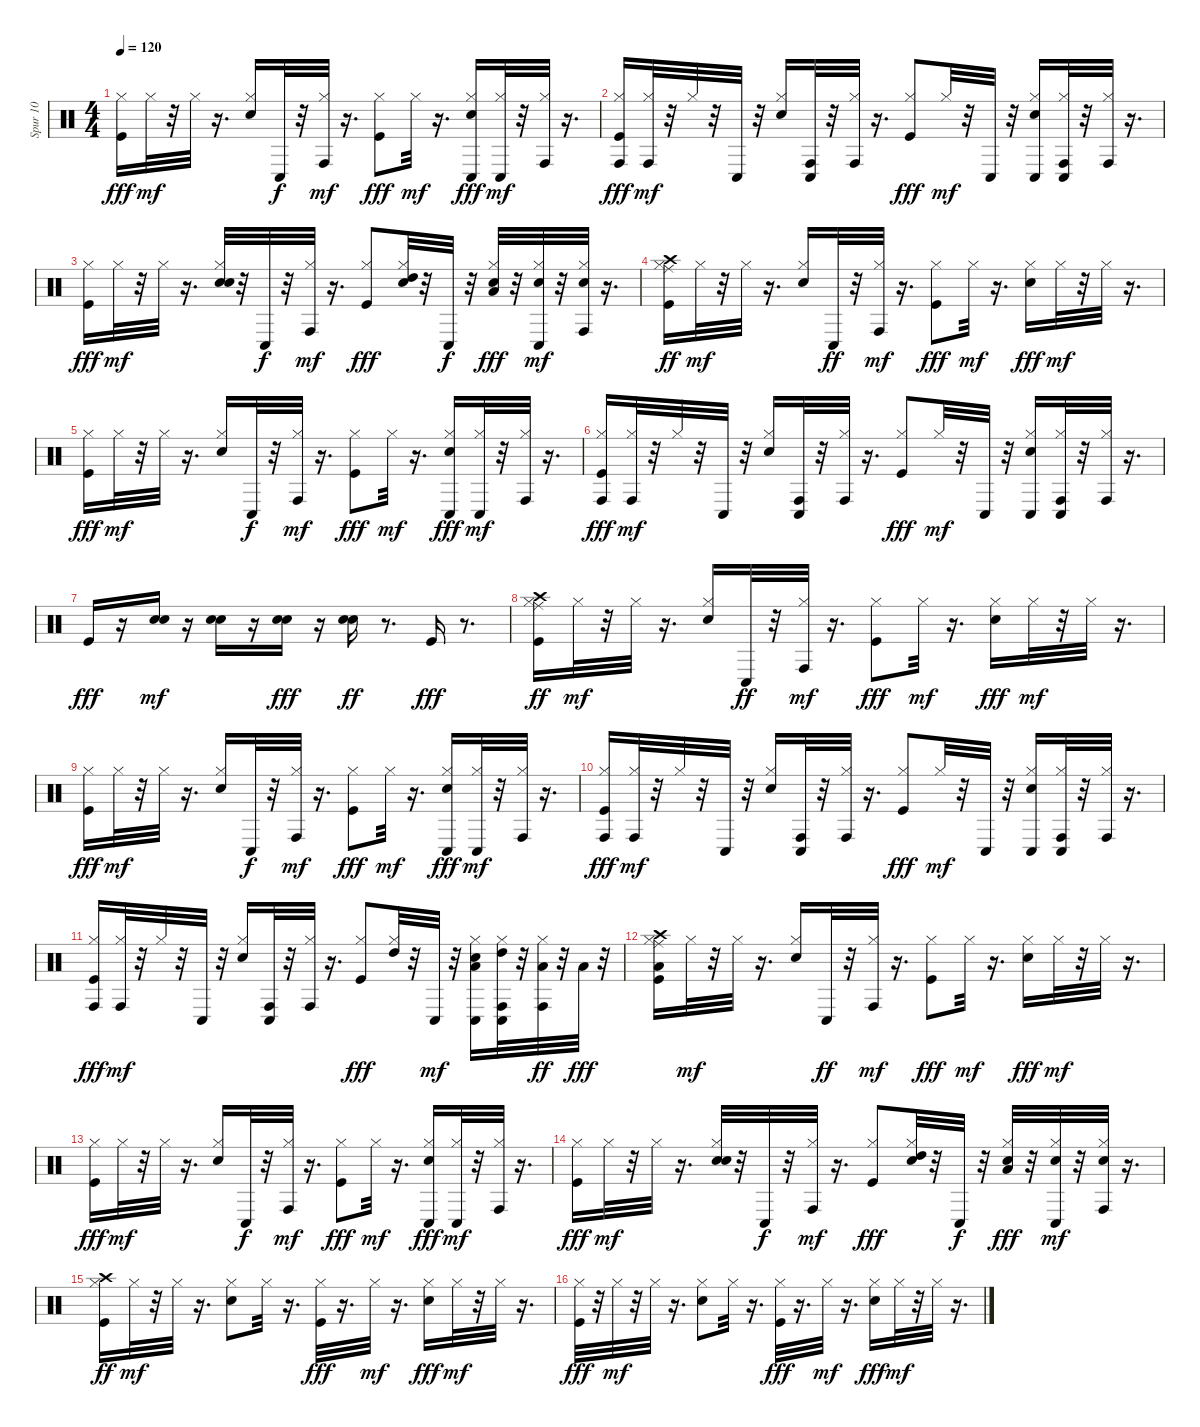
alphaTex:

\track ("Spur 10" "Spur 10") {instrument percussion}
\staff {score}
\articulation defaults
\ts (4 4)
\tempo 120
\clef neutral
\ks c
("Kick (hit)" "Hi-Hat (closed)").16{dy fff} "Hi-Hat (closed)".32{dy mf} r.32 "Hi-Hat (closed)".32 r.16{d} ("Snare (hit) 2" "Hi-Hat (closed)").16 "Conga low (hit)".32{dy f} r.32 ("Hi-Hat (closed)" "Conga high (hit)").32{dy mf} r.16{d} ("Kick (hit)" "Hi-Hat (closed)").8{dy fff} "Hi-Hat (closed)".32{dy mf} r.16{d} ("Snare (hit) 2" "Hi-Hat (closed)" "Conga low (hit)").16{dy fff} ("Hi-Hat (closed)" "Conga low (hit)").32{dy mf} r.32 ("Hi-Hat (closed)" "Conga high (hit)").32 r.16{d} |
("Kick (hit)" "Hi-Hat (closed)" "Conga high (hit)").16{dy fff} ("Hi-Hat (closed)" "Conga high (hit)").32{dy mf} r.32 "Hi-Hat (closed)".32 r.32 "Conga low (hit)".32 r.32 ("Snare (hit) 2" "Hi-Hat (closed)").16 ("Conga high (hit)" "Conga low (hit)").32 r.32 ("Hi-Hat (closed)" "Conga high (hit)").32 r.16{d} ("Kick (hit)" "Hi-Hat (closed)").8{dy fff} "Hi-Hat (closed)".32{dy mf} r.32 "Conga low (hit)".32 r.32 ("Snare (hit) 2" "Hi-Hat (closed)" "Conga low (hit)").16 ("Hi-Hat (closed)" "Conga high (hit)" "Conga low (hit)").32 r.32 ("Hi-Hat (closed)" "Conga high (hit)").32 r.16{d} |
("Kick (hit)" "Hi-Hat (closed)").16{dy fff} "Hi-Hat (closed)".32{dy mf} r.32 "Hi-Hat (closed)".32 r.16{d} ("Snare (hit) 2" "Electric Snare (hit)" "Hi-Hat (closed)").32 r.32 "Conga low (hit)".32{dy f} r.32 ("Hi-Hat (closed)" "Conga high (hit)").32{dy mf} r.16{d} ("Kick (hit)" "Hi-Hat (closed)").8{dy fff} ("Electric Snare (hit)" "Hi-Hat (closed)" "High Tom (hit)").32 r.32 "Conga low (hit)".32{dy f} r.32 ("Snare (hit) 2" "Hi-Hat (closed)" "Low Floor Tom (hit)").32{dy fff} r.32 ("Snare (hit) 2" "Hi-Hat (closed)" "Conga low (hit)").32{dy mf} r.32 ("Snare (hit) 2" "Hi-Hat (closed)" "Conga high (hit)").32 r.16{d} |
("Kick (hit)" "Hi-Hat (closed)" "Ride (middle)" "Crash high (hit)").16{dy ff} "Hi-Hat (closed)".32{dy mf} r.32 "Hi-Hat (closed)".32 r.16{d} ("Snare (hit) 2" "Hi-Hat (closed)").16 "Conga low (hit)".32{dy ff} r.32 ("Hi-Hat (closed)" "Conga high (hit)").32{dy mf} r.16{d} ("Kick (hit)" "Hi-Hat (closed)").8{dy fff} "Hi-Hat (closed)".32{dy mf} r.16{d} ("Snare (hit) 2" "Hi-Hat (closed)").16{dy fff} "Hi-Hat (closed)".32{dy mf} r.32 "Hi-Hat (closed)".32 r.16{d} |
("Kick (hit)" "Hi-Hat (closed)").16{dy fff} "Hi-Hat (closed)".32{dy mf} r.32 "Hi-Hat (closed)".32 r.16{d} ("Snare (hit) 2" "Hi-Hat (closed)").16 "Conga low (hit)".32{dy f} r.32 ("Hi-Hat (closed)" "Conga high (hit)").32{dy mf} r.16{d} ("Kick (hit)" "Hi-Hat (closed)").8{dy fff} "Hi-Hat (closed)".32{dy mf} r.16{d} ("Snare (hit) 2" "Hi-Hat (closed)" "Conga low (hit)").16{dy fff} ("Hi-Hat (closed)" "Conga low (hit)").32{dy mf} r.32 ("Hi-Hat (closed)" "Conga high (hit)").32 r.16{d} |
("Kick (hit)" "Hi-Hat (closed)" "Conga high (hit)").16{dy fff} ("Hi-Hat (closed)" "Conga high (hit)").32{dy mf} r.32 "Hi-Hat (closed)".32 r.32 "Conga low (hit)".32 r.32 ("Snare (hit) 2" "Hi-Hat (closed)").16 ("Conga high (hit)" "Conga low (hit)").32 r.32 ("Hi-Hat (closed)" "Conga high (hit)").32 r.16{d} ("Kick (hit)" "Hi-Hat (closed)").8{dy fff} "Hi-Hat (closed)".32{dy mf} r.32 "Conga low (hit)".32 r.32 ("Snare (hit) 2" "Hi-Hat (closed)" "Conga low (hit)").16 ("Hi-Hat (closed)" "Conga high (hit)" "Conga low (hit)").32 r.32 ("Hi-Hat (closed)" "Conga high (hit)").32 r.16{d} |
"Kick (hit)".16{dy fff} r.16 ("Snare (hit) 2" "Electric Snare (hit)").16{dy mf} r.16 ("Snare (hit) 2" "Electric Snare (hit)").16 r.16 ("Snare (hit) 2" "Electric Snare (hit)").16{dy fff} r.16 ("Snare (hit) 2" "Electric Snare (hit)").16{dy ff} r.8{d} "Kick (hit)".16{dy fff} r.8{d} |
("Kick (hit)" "Hi-Hat (closed)" "Ride (middle)" "Crash high (hit)").16{dy ff} "Hi-Hat (closed)".32{dy mf} r.32 "Hi-Hat (closed)".32 r.16{d} ("Snare (hit) 2" "Hi-Hat (closed)").16 "Conga low (hit)".32{dy ff} r.32 ("Hi-Hat (closed)" "Conga high (hit)").32{dy mf} r.16{d} ("Kick (hit)" "Hi-Hat (closed)").8{dy fff} "Hi-Hat (closed)".32{dy mf} r.16{d} ("Snare (hit) 2" "Hi-Hat (closed)").16{dy fff} "Hi-Hat (closed)".32{dy mf} r.32 "Hi-Hat (closed)".32 r.16{d} |
("Kick (hit)" "Hi-Hat (closed)").16{dy fff} "Hi-Hat (closed)".32{dy mf} r.32 "Hi-Hat (closed)".32 r.16{d} ("Snare (hit) 2" "Hi-Hat (closed)").16 "Conga low (hit)".32{dy f} r.32 ("Hi-Hat (closed)" "Conga high (hit)").32{dy mf} r.16{d} ("Kick (hit)" "Hi-Hat (closed)").8{dy fff} "Hi-Hat (closed)".32{dy mf} r.16{d} ("Snare (hit) 2" "Hi-Hat (closed)" "Conga low (hit)").16{dy fff} ("Hi-Hat (closed)" "Conga low (hit)").32{dy mf} r.32 ("Hi-Hat (closed)" "Conga high (hit)").32 r.16{d} |
("Kick (hit)" "Hi-Hat (closed)" "Conga high (hit)").16{dy fff} ("Hi-Hat (closed)" "Conga high (hit)").32{dy mf} r.32 "Hi-Hat (closed)".32 r.32 "Conga low (hit)".32 r.32 ("Snare (hit) 2" "Hi-Hat (closed)").16 ("Conga high (hit)" "Conga low (hit)").32 r.32 ("Hi-Hat (closed)" "Conga high (hit)").32 r.16{d} ("Kick (hit)" "Hi-Hat (closed)").8{dy fff} "Hi-Hat (closed)".32{dy mf} r.32 "Conga low (hit)".32 r.32 ("Snare (hit) 2" "Hi-Hat (closed)" "Conga low (hit)").16 ("Hi-Hat (closed)" "Conga high (hit)" "Conga low (hit)").32 r.32 ("Hi-Hat (closed)" "Conga high (hit)").32 r.16{d} |
("Kick (hit)" "Hi-Hat (closed)" "Conga high (hit)").16{dy fff} ("Hi-Hat (closed)" "Conga high (hit)").32{dy mf} r.32 "Hi-Hat (closed)".32 r.32 "Conga low (hit)".32 r.32 ("Snare (hit) 2" "Hi-Hat (closed)").16 ("Conga high (hit)" "Conga low (hit)").32 r.32 ("Hi-Hat (closed)" "Conga high (hit)").32 r.16{d} ("Kick (hit)" "Hi-Hat (closed)").8{dy fff} ("Hi-Hat (closed)" "High Tom (hit)").32 r.32 "Conga low (hit)".32{dy mf} r.32 ("Snare (hit) 2" "Hi-Hat (closed)" "Low Tom (hit)" "Conga low (hit)").16 ("Hi-Hat (closed)" "High Tom (hit)" "Conga high (hit)" "Conga low (hit)").32 r.32 ("Hi-Hat (closed)" "Low Tom (hit)" "Conga high (hit)").32{dy ff} r.32 "Low Tom (hit)".32{dy fff} r.32 |
("Kick (hit)" "Hi-Hat (closed)" "Ride (middle)" "Crash high (hit)" "Low Floor Tom (hit)").16 "Hi-Hat (closed)".32{dy mf} r.32 "Hi-Hat (closed)".32 r.16{d} ("Snare (hit) 2" "Hi-Hat (closed)").16 "Conga low (hit)".32{dy ff} r.32 ("Hi-Hat (closed)" "Conga high (hit)").32{dy mf} r.16{d} ("Kick (hit)" "Hi-Hat (closed)").8{dy fff} "Hi-Hat (closed)".32{dy mf} r.16{d} ("Snare (hit) 2" "Hi-Hat (closed)").16{dy fff} "Hi-Hat (closed)".32{dy mf} r.32 "Hi-Hat (closed)".32 r.16{d} |
("Kick (hit)" "Hi-Hat (closed)").16{dy fff} "Hi-Hat (closed)".32{dy mf} r.32 "Hi-Hat (closed)".32 r.16{d} ("Snare (hit) 2" "Hi-Hat (closed)").16 "Conga low (hit)".32{dy f} r.32 ("Hi-Hat (closed)" "Conga high (hit)").32{dy mf} r.16{d} ("Kick (hit)" "Hi-Hat (closed)").8{dy fff} "Hi-Hat (closed)".32{dy mf} r.16{d} ("Snare (hit) 2" "Hi-Hat (closed)" "Conga low (hit)").16{dy fff} ("Hi-Hat (closed)" "Conga low (hit)").32{dy mf} r.32 ("Hi-Hat (closed)" "Conga high (hit)").32 r.16{d} |
("Kick (hit)" "Hi-Hat (closed)").16{dy fff} "Hi-Hat (closed)".32{dy mf} r.32 "Hi-Hat (closed)".32 r.16{d} ("Snare (hit) 2" "Electric Snare (hit)" "Hi-Hat (closed)").32 r.32 "Conga low (hit)".32{dy f} r.32 ("Hi-Hat (closed)" "Conga high (hit)").32{dy mf} r.16{d} ("Kick (hit)" "Hi-Hat (closed)").8{dy fff} ("Electric Snare (hit)" "Hi-Hat (closed)" "High Tom (hit)").32 r.32 "Conga low (hit)".32{dy f} r.32 ("Snare (hit) 2" "Hi-Hat (closed)" "Low Floor Tom (hit)").32{dy fff} r.32 ("Snare (hit) 2" "Hi-Hat (closed)" "Conga low (hit)").32{dy mf} r.32 ("Snare (hit) 2" "Hi-Hat (closed)" "Conga high (hit)").32 r.16{d} |
("Kick (hit)" "Hi-Hat (closed)" "Crash high (hit)").16{dy ff} "Hi-Hat (closed)".32{dy mf} r.32 "Hi-Hat (closed)".32 r.16{d} ("Snare (hit) 2" "Hi-Hat (closed)").8 "Hi-Hat (closed)".32 r.16{d} ("Kick (hit)" "Hi-Hat (closed)").32{dy fff} r.16{d} "Hi-Hat (closed)".32{dy mf} r.16{d} ("Snare (hit) 2" "Hi-Hat (closed)").16{dy fff} "Hi-Hat (closed)".32{dy mf} r.32 "Hi-Hat (closed)".32 r.16{d} |
("Kick (hit)" "Hi-Hat (closed)").32{dy fff} r.32 "Hi-Hat (closed)".32{dy mf} r.32 "Hi-Hat (closed)".32 r.16{d} ("Snare (hit) 2" "Hi-Hat (closed)").8 "Hi-Hat (closed)".32 r.16{d} ("Kick (hit)" "Hi-Hat (closed)").32{dy fff} r.16{d} "Hi-Hat (closed)".32{dy mf} r.16{d} ("Snare (hit) 2" "Hi-Hat (closed)").16{dy fff} "Hi-Hat (closed)".32{dy mf} r.32 "Hi-Hat (closed)".32 r.16{d}
